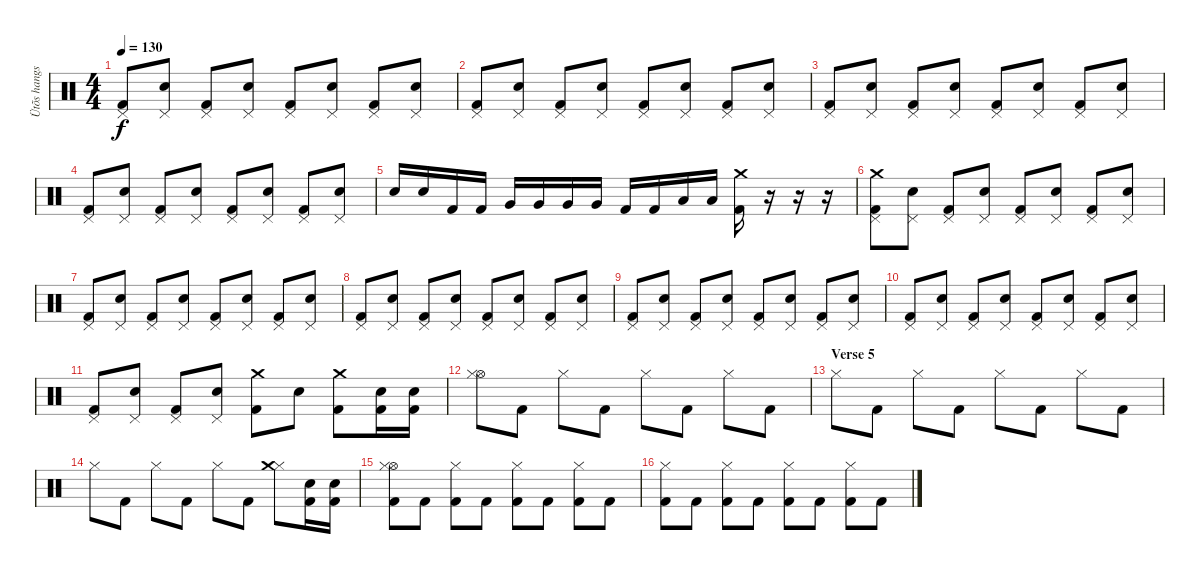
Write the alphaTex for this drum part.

\track ("Ütõs hangszer" "Ütõs hangs") {instrument percussion}
\staff {score}
\articulation defaults
\ts (4 4)
\tempo 130
\clef neutral
\ks c
("Pedal Hi-Hat (hit)" "Kick (hit) 2").8{dy f} ("Pedal Hi-Hat (hit)" "Snare (hit) 2").8 ("Pedal Hi-Hat (hit)" "Kick (hit) 2").8 ("Pedal Hi-Hat (hit)" "Snare (hit) 2").8 ("Pedal Hi-Hat (hit)" "Kick (hit) 2").8 ("Pedal Hi-Hat (hit)" "Snare (hit) 2").8 ("Pedal Hi-Hat (hit)" "Kick (hit) 2").8 ("Pedal Hi-Hat (hit)" "Snare (hit) 2").8 |
("Pedal Hi-Hat (hit)" "Kick (hit) 2").8 ("Pedal Hi-Hat (hit)" "Snare (hit) 2").8 ("Pedal Hi-Hat (hit)" "Kick (hit) 2").8 ("Pedal Hi-Hat (hit)" "Snare (hit) 2").8 ("Pedal Hi-Hat (hit)" "Kick (hit) 2").8 ("Pedal Hi-Hat (hit)" "Snare (hit) 2").8 ("Pedal Hi-Hat (hit)" "Kick (hit) 2").8 ("Pedal Hi-Hat (hit)" "Snare (hit) 2").8 |
("Pedal Hi-Hat (hit)" "Kick (hit) 2").8 ("Pedal Hi-Hat (hit)" "Snare (hit) 2").8 ("Pedal Hi-Hat (hit)" "Kick (hit) 2").8 ("Pedal Hi-Hat (hit)" "Snare (hit) 2").8 ("Pedal Hi-Hat (hit)" "Kick (hit) 2").8 ("Pedal Hi-Hat (hit)" "Snare (hit) 2").8 ("Pedal Hi-Hat (hit)" "Kick (hit) 2").8 ("Pedal Hi-Hat (hit)" "Snare (hit) 2").8 |
("Pedal Hi-Hat (hit)" "Kick (hit) 2").8 ("Pedal Hi-Hat (hit)" "Snare (hit) 2").8 ("Pedal Hi-Hat (hit)" "Kick (hit) 2").8 ("Pedal Hi-Hat (hit)" "Snare (hit) 2").8 ("Pedal Hi-Hat (hit)" "Kick (hit) 2").8 ("Pedal Hi-Hat (hit)" "Snare (hit) 2").8 ("Pedal Hi-Hat (hit)" "Kick (hit) 2").8 ("Pedal Hi-Hat (hit)" "Snare (hit) 2").8 |
"Snare (hit) 2".16 "Snare (hit) 2".16 "Kick (hit) 2".16 "Kick (hit) 2".16 "Very Low Tom (hit)".16 "Very Low Tom (hit)".16 "Very Low Tom (hit)".16 "Very Low Tom (hit)".16 "Kick (hit) 2".16 "Kick (hit) 2".16 "Low Floor Tom (hit)".16 "Low Floor Tom (hit)".16 ("Kick (hit) 2" "Crash medium (hit)").16 r.16 r.16 r.16 |
("Crash medium (hit)" "Pedal Hi-Hat (hit)" "Kick (hit) 2").8 ("Pedal Hi-Hat (hit)" "Snare (hit) 2").8 ("Pedal Hi-Hat (hit)" "Kick (hit) 2").8 ("Pedal Hi-Hat (hit)" "Snare (hit) 2").8 ("Pedal Hi-Hat (hit)" "Kick (hit) 2").8 ("Pedal Hi-Hat (hit)" "Snare (hit) 2").8 ("Pedal Hi-Hat (hit)" "Kick (hit) 2").8 ("Pedal Hi-Hat (hit)" "Snare (hit) 2").8 |
("Pedal Hi-Hat (hit)" "Kick (hit) 2").8 ("Pedal Hi-Hat (hit)" "Snare (hit) 2").8 ("Pedal Hi-Hat (hit)" "Kick (hit) 2").8 ("Pedal Hi-Hat (hit)" "Snare (hit) 2").8 ("Pedal Hi-Hat (hit)" "Kick (hit) 2").8 ("Pedal Hi-Hat (hit)" "Snare (hit) 2").8 ("Pedal Hi-Hat (hit)" "Kick (hit) 2").8 ("Pedal Hi-Hat (hit)" "Snare (hit) 2").8 |
("Pedal Hi-Hat (hit)" "Kick (hit) 2").8 ("Pedal Hi-Hat (hit)" "Snare (hit) 2").8 ("Pedal Hi-Hat (hit)" "Kick (hit) 2").8 ("Pedal Hi-Hat (hit)" "Snare (hit) 2").8 ("Pedal Hi-Hat (hit)" "Kick (hit) 2").8 ("Pedal Hi-Hat (hit)" "Snare (hit) 2").8 ("Pedal Hi-Hat (hit)" "Kick (hit) 2").8 ("Pedal Hi-Hat (hit)" "Snare (hit) 2").8 |
("Pedal Hi-Hat (hit)" "Kick (hit) 2").8 ("Pedal Hi-Hat (hit)" "Snare (hit) 2").8 ("Pedal Hi-Hat (hit)" "Kick (hit) 2").8 ("Pedal Hi-Hat (hit)" "Snare (hit) 2").8 ("Pedal Hi-Hat (hit)" "Kick (hit) 2").8 ("Pedal Hi-Hat (hit)" "Snare (hit) 2").8 ("Pedal Hi-Hat (hit)" "Kick (hit) 2").8 ("Pedal Hi-Hat (hit)" "Snare (hit) 2").8 |
("Pedal Hi-Hat (hit)" "Kick (hit) 2").8 ("Pedal Hi-Hat (hit)" "Snare (hit) 2").8 ("Pedal Hi-Hat (hit)" "Kick (hit) 2").8 ("Pedal Hi-Hat (hit)" "Snare (hit) 2").8 ("Pedal Hi-Hat (hit)" "Kick (hit) 2").8 ("Pedal Hi-Hat (hit)" "Snare (hit) 2").8 ("Pedal Hi-Hat (hit)" "Kick (hit) 2").8 ("Pedal Hi-Hat (hit)" "Snare (hit) 2").8 |
("Pedal Hi-Hat (hit)" "Kick (hit) 2").8 ("Pedal Hi-Hat (hit)" "Snare (hit) 2").8 ("Pedal Hi-Hat (hit)" "Kick (hit) 2").8 ("Pedal Hi-Hat (hit)" "Snare (hit) 2").8 ("Crash medium (hit)" "Kick (hit) 2").8 "Snare (hit) 2".8 ("Crash medium (hit)" "Kick (hit) 2").8 ("Kick (hit) 2" "Snare (hit) 2").16 ("Kick (hit) 2" "Snare (hit) 2").16 |
("Hi-Hat (open)" "Hi-Hat (closed)").8 "Kick (hit) 2".8 "Hi-Hat (closed)".8 "Kick (hit) 2".8 "Hi-Hat (closed)".8 "Kick (hit) 2".8 "Hi-Hat (closed)".8 "Kick (hit) 2".8 |
\section ("" "Verse 5")
"Hi-Hat (closed)".8 "Kick (hit) 2".8 "Hi-Hat (closed)".8 "Kick (hit) 2".8 "Hi-Hat (closed)".8 "Kick (hit) 2".8 "Hi-Hat (closed)".8 "Kick (hit) 2".8 |
"Hi-Hat (closed)".8 "Kick (hit) 2".8 "Hi-Hat (closed)".8 "Kick (hit) 2".8 "Hi-Hat (closed)".8 "Kick (hit) 2".8 ("Hi-Hat (closed)" "Crash medium (hit)").8 ("Snare (hit) 2" "Kick (hit) 2").16 ("Snare (hit) 2" "Kick (hit) 2").16 |
("Hi-Hat (open)" "Hi-Hat (closed)" "Kick (hit) 2").8 "Kick (hit) 2".8 ("Hi-Hat (closed)" "Kick (hit) 2").8 "Kick (hit) 2".8 ("Hi-Hat (closed)" "Kick (hit) 2").8 "Kick (hit) 2".8 ("Hi-Hat (closed)" "Kick (hit) 2").8 "Kick (hit) 2".8 |
("Hi-Hat (closed)" "Kick (hit) 2").8 "Kick (hit) 2".8 ("Hi-Hat (closed)" "Kick (hit) 2").8 "Kick (hit) 2".8 ("Hi-Hat (closed)" "Kick (hit) 2").8 "Kick (hit) 2".8 ("Hi-Hat (closed)" "Kick (hit) 2").8 "Kick (hit) 2".8
